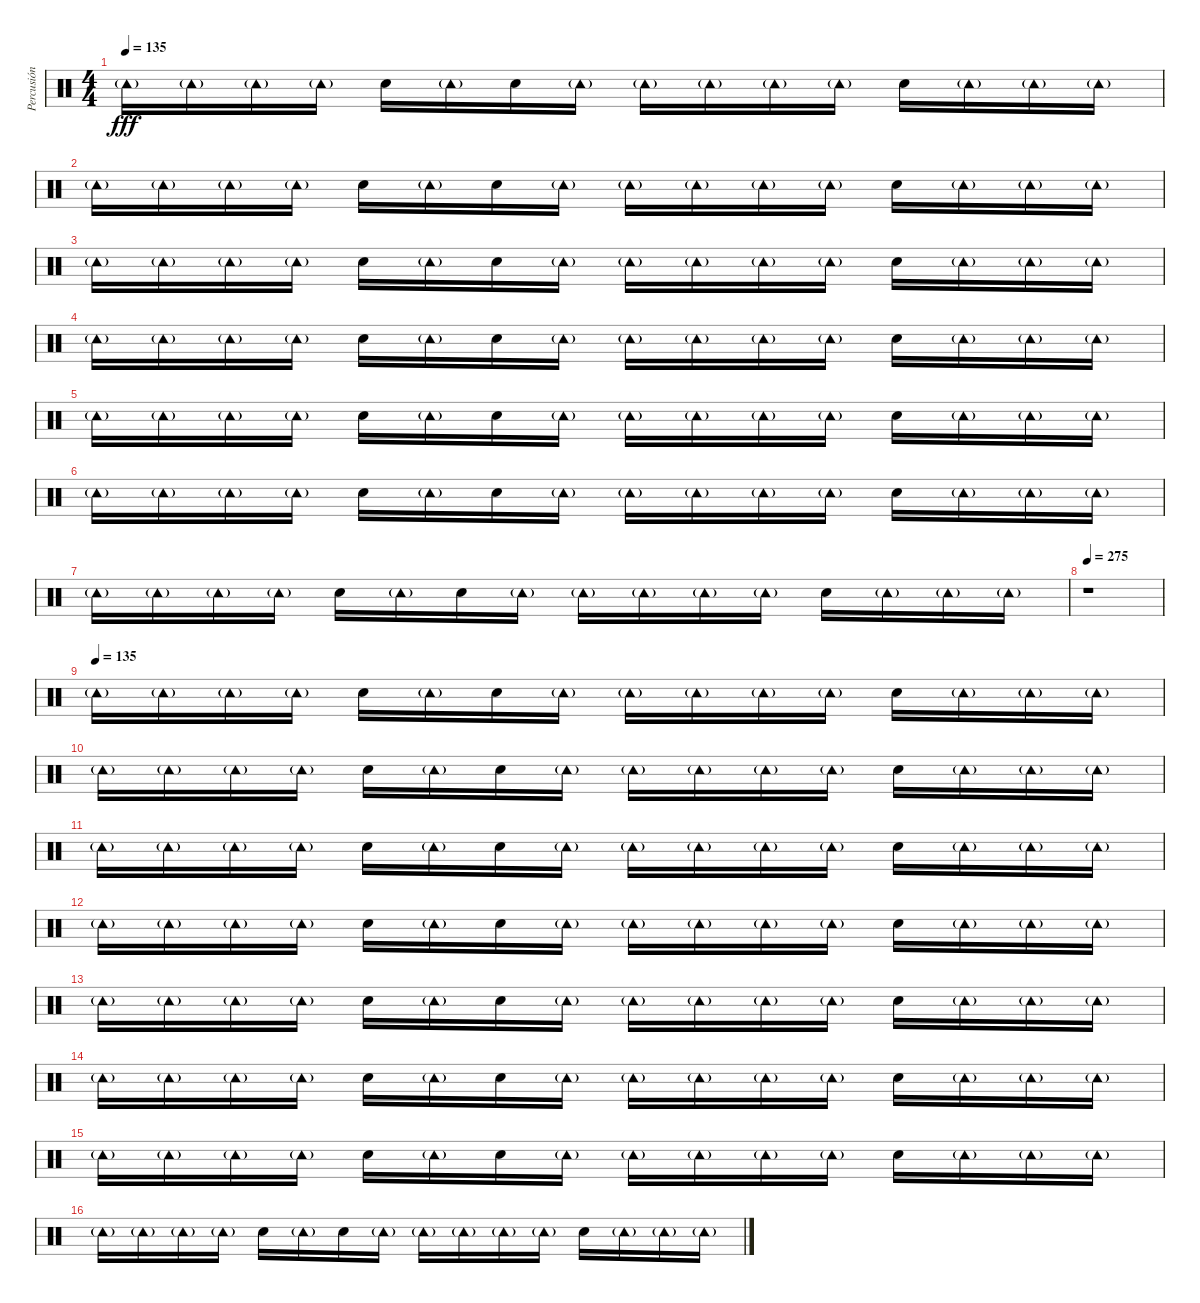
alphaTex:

\track ("Percusión" "Percusión") {instrument percussion}
\staff {score}
\articulation defaults
\ts (4 4)
\tempo 135
\clef neutral
\ks c "Tambourine (hit)"{g}.16{dy fff} "Tambourine (hit)"{g}.16 "Tambourine (hit)"{g}.16 "Tambourine (hit)"{g}.16 "Hand Clap (hit)".16 "Tambourine (hit)"{g}.16 "Hand Clap (hit)".16 "Tambourine (hit)"{g}.16 "Tambourine (hit)"{g}.16 "Tambourine (hit)"{g}.16 "Tambourine (hit)"{g}.16 "Tambourine (hit)"{g}.16 "Hand Clap (hit)".16 "Tambourine (hit)"{g}.16 "Tambourine (hit)"{g}.16 "Tambourine (hit)"{g}.16
|
"Tambourine (hit)"{g}.16 "Tambourine (hit)"{g}.16 "Tambourine (hit)"{g}.16 "Tambourine (hit)"{g}.16 "Hand Clap (hit)".16 "Tambourine (hit)"{g}.16 "Hand Clap (hit)".16 "Tambourine (hit)"{g}.16 "Tambourine (hit)"{g}.16 "Tambourine (hit)"{g}.16 "Tambourine (hit)"{g}.16 "Tambourine (hit)"{g}.16 "Hand Clap (hit)".16 "Tambourine (hit)"{g}.16 "Tambourine (hit)"{g}.16 "Tambourine (hit)"{g}.16 |
"Tambourine (hit)"{g}.16 "Tambourine (hit)"{g}.16 "Tambourine (hit)"{g}.16 "Tambourine (hit)"{g}.16 "Hand Clap (hit)".16 "Tambourine (hit)"{g}.16 "Hand Clap (hit)".16 "Tambourine (hit)"{g}.16 "Tambourine (hit)"{g}.16 "Tambourine (hit)"{g}.16 "Tambourine (hit)"{g}.16 "Tambourine (hit)"{g}.16 "Hand Clap (hit)".16 "Tambourine (hit)"{g}.16 "Tambourine (hit)"{g}.16 "Tambourine (hit)"{g}.16 |
"Tambourine (hit)"{g}.16 "Tambourine (hit)"{g}.16 "Tambourine (hit)"{g}.16 "Tambourine (hit)"{g}.16 "Hand Clap (hit)".16 "Tambourine (hit)"{g}.16 "Hand Clap (hit)".16 "Tambourine (hit)"{g}.16 "Tambourine (hit)"{g}.16 "Tambourine (hit)"{g}.16 "Tambourine (hit)"{g}.16 "Tambourine (hit)"{g}.16 "Hand Clap (hit)".16 "Tambourine (hit)"{g}.16 "Tambourine (hit)"{g}.16 "Tambourine (hit)"{g}.16 |
"Tambourine (hit)"{g}.16 "Tambourine (hit)"{g}.16 "Tambourine (hit)"{g}.16 "Tambourine (hit)"{g}.16 "Hand Clap (hit)".16 "Tambourine (hit)"{g}.16 "Hand Clap (hit)".16 "Tambourine (hit)"{g}.16 "Tambourine (hit)"{g}.16 "Tambourine (hit)"{g}.16 "Tambourine (hit)"{g}.16 "Tambourine (hit)"{g}.16 "Hand Clap (hit)".16 "Tambourine (hit)"{g}.16 "Tambourine (hit)"{g}.16 "Tambourine (hit)"{g}.16 |
"Tambourine (hit)"{g}.16 "Tambourine (hit)"{g}.16 "Tambourine (hit)"{g}.16 "Tambourine (hit)"{g}.16 "Hand Clap (hit)".16 "Tambourine (hit)"{g}.16 "Hand Clap (hit)".16 "Tambourine (hit)"{g}.16 "Tambourine (hit)"{g}.16 "Tambourine (hit)"{g}.16 "Tambourine (hit)"{g}.16 "Tambourine (hit)"{g}.16 "Hand Clap (hit)".16 "Tambourine (hit)"{g}.16 "Tambourine (hit)"{g}.16 "Tambourine (hit)"{g}.16 |
"Tambourine (hit)"{g}.16 "Tambourine (hit)"{g}.16 "Tambourine (hit)"{g}.16 "Tambourine (hit)"{g}.16 "Hand Clap (hit)".16 "Tambourine (hit)"{g}.16 "Hand Clap (hit)".16 "Tambourine (hit)"{g}.16 "Tambourine (hit)"{g}.16 "Tambourine (hit)"{g}.16 "Tambourine (hit)"{g}.16 "Tambourine (hit)"{g}.16 "Hand Clap (hit)".16 "Tambourine (hit)"{g}.16 "Tambourine (hit)"{g}.16 "Tambourine (hit)"{g}.16 |
\tempo 275
r.1 |
\tempo (135)
"Tambourine (hit)"{g}.16 "Tambourine (hit)"{g}.16 "Tambourine (hit)"{g}.16 "Tambourine (hit)"{g}.16 "Hand Clap (hit)".16 "Tambourine (hit)"{g}.16 "Hand Clap (hit)".16 "Tambourine (hit)"{g}.16 "Tambourine (hit)"{g}.16 "Tambourine (hit)"{g}.16 "Tambourine (hit)"{g}.16 "Tambourine (hit)"{g}.16 "Hand Clap (hit)".16 "Tambourine (hit)"{g}.16 "Tambourine (hit)"{g}.16 "Tambourine (hit)"{g}.16 |
"Tambourine (hit)"{g}.16 "Tambourine (hit)"{g}.16 "Tambourine (hit)"{g}.16 "Tambourine (hit)"{g}.16 "Hand Clap (hit)".16 "Tambourine (hit)"{g}.16 "Hand Clap (hit)".16 "Tambourine (hit)"{g}.16 "Tambourine (hit)"{g}.16 "Tambourine (hit)"{g}.16 "Tambourine (hit)"{g}.16 "Tambourine (hit)"{g}.16 "Hand Clap (hit)".16 "Tambourine (hit)"{g}.16 "Tambourine (hit)"{g}.16 "Tambourine (hit)"{g}.16 |
"Tambourine (hit)"{g}.16 "Tambourine (hit)"{g}.16 "Tambourine (hit)"{g}.16 "Tambourine (hit)"{g}.16 "Hand Clap (hit)".16 "Tambourine (hit)"{g}.16 "Hand Clap (hit)".16 "Tambourine (hit)"{g}.16 "Tambourine (hit)"{g}.16 "Tambourine (hit)"{g}.16 "Tambourine (hit)"{g}.16 "Tambourine (hit)"{g}.16 "Hand Clap (hit)".16 "Tambourine (hit)"{g}.16 "Tambourine (hit)"{g}.16 "Tambourine (hit)"{g}.16 |
"Tambourine (hit)"{g}.16 "Tambourine (hit)"{g}.16 "Tambourine (hit)"{g}.16 "Tambourine (hit)"{g}.16 "Hand Clap (hit)".16 "Tambourine (hit)"{g}.16 "Hand Clap (hit)".16 "Tambourine (hit)"{g}.16 "Tambourine (hit)"{g}.16 "Tambourine (hit)"{g}.16 "Tambourine (hit)"{g}.16 "Tambourine (hit)"{g}.16 "Hand Clap (hit)".16 "Tambourine (hit)"{g}.16 "Tambourine (hit)"{g}.16 "Tambourine (hit)"{g}.16 |
"Tambourine (hit)"{g}.16 "Tambourine (hit)"{g}.16 "Tambourine (hit)"{g}.16 "Tambourine (hit)"{g}.16 "Hand Clap (hit)".16 "Tambourine (hit)"{g}.16 "Hand Clap (hit)".16 "Tambourine (hit)"{g}.16 "Tambourine (hit)"{g}.16 "Tambourine (hit)"{g}.16 "Tambourine (hit)"{g}.16 "Tambourine (hit)"{g}.16 "Hand Clap (hit)".16 "Tambourine (hit)"{g}.16 "Tambourine (hit)"{g}.16 "Tambourine (hit)"{g}.16 |
"Tambourine (hit)"{g}.16 "Tambourine (hit)"{g}.16 "Tambourine (hit)"{g}.16 "Tambourine (hit)"{g}.16 "Hand Clap (hit)".16 "Tambourine (hit)"{g}.16 "Hand Clap (hit)".16 "Tambourine (hit)"{g}.16 "Tambourine (hit)"{g}.16 "Tambourine (hit)"{g}.16 "Tambourine (hit)"{g}.16 "Tambourine (hit)"{g}.16 "Hand Clap (hit)".16 "Tambourine (hit)"{g}.16 "Tambourine (hit)"{g}.16 "Tambourine (hit)"{g}.16 |
"Tambourine (hit)"{g}.16 "Tambourine (hit)"{g}.16 "Tambourine (hit)"{g}.16 "Tambourine (hit)"{g}.16 "Hand Clap (hit)".16 "Tambourine (hit)"{g}.16 "Hand Clap (hit)".16 "Tambourine (hit)"{g}.16 "Tambourine (hit)"{g}.16 "Tambourine (hit)"{g}.16 "Tambourine (hit)"{g}.16 "Tambourine (hit)"{g}.16 "Hand Clap (hit)".16 "Tambourine (hit)"{g}.16 "Tambourine (hit)"{g}.16 "Tambourine (hit)"{g}.16 |
"Tambourine (hit)"{g}.16 "Tambourine (hit)"{g}.16 "Tambourine (hit)"{g}.16 "Tambourine (hit)"{g}.16 "Hand Clap (hit)".16 "Tambourine (hit)"{g}.16 "Hand Clap (hit)".16 "Tambourine (hit)"{g}.16 "Tambourine (hit)"{g}.16 "Tambourine (hit)"{g}.16 "Tambourine (hit)"{g}.16 "Tambourine (hit)"{g}.16 "Hand Clap (hit)".16 "Tambourine (hit)"{g}.16 "Tambourine (hit)"{g}.16 "Tambourine (hit)"{g}.16
